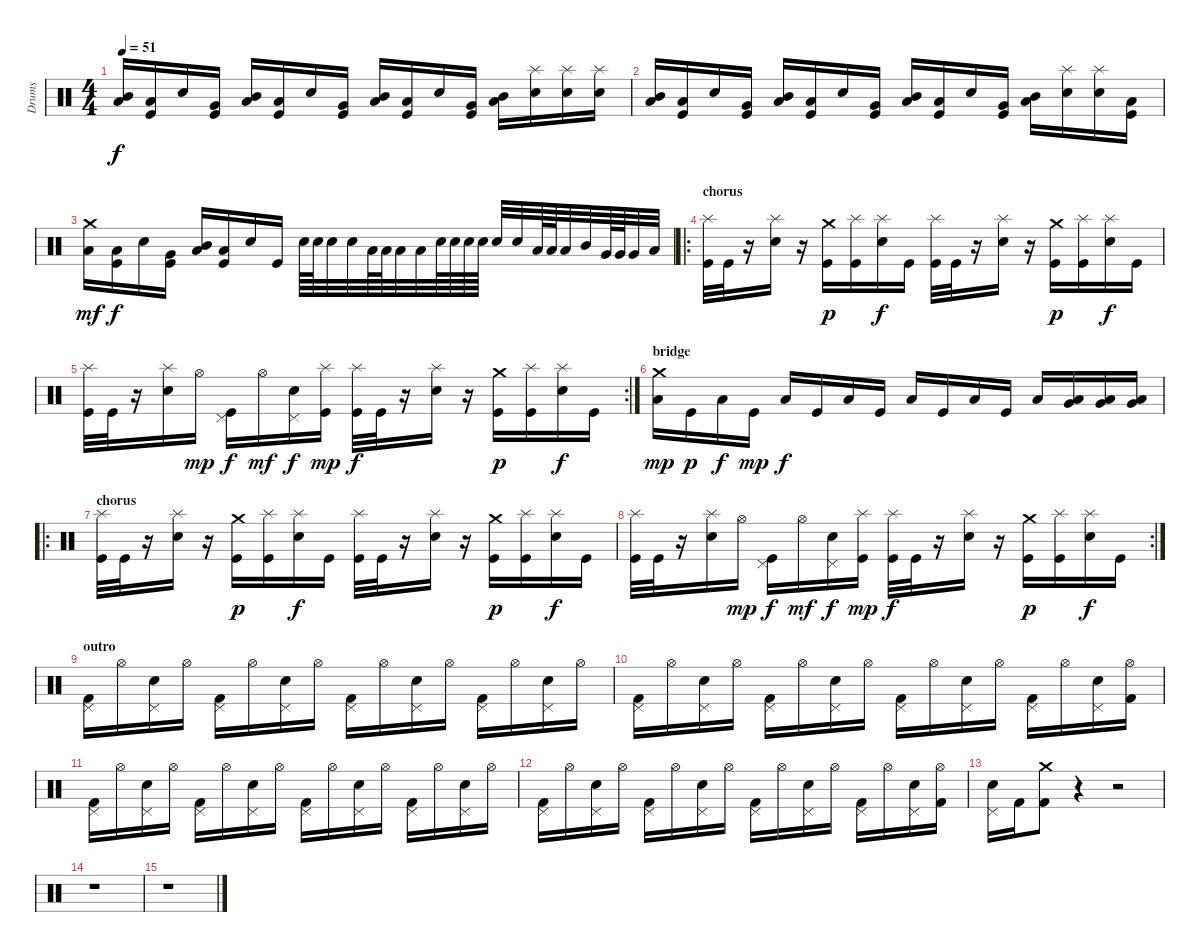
\track ("Drums" "Drums") {instrument percussion}
\staff {score}
\articulation defaults
\ts (4 4)
\tempo 51
\clef neutral
\ks c
("Mid Tom (hit)" "Low Floor Tom (hit)").16{dy f} ("Low Floor Tom (hit)" "Kick (hit)").16 "Snare (hit) 2".16 ("Very Low Tom (hit)" "Kick (hit)").16 ("Mid Tom (hit)" "Low Floor Tom (hit)").16 ("Low Floor Tom (hit)" "Kick (hit)").16 "Snare (hit) 2".16 ("Very Low Tom (hit)" "Kick (hit)").16 ("Mid Tom (hit)" "Low Floor Tom (hit)").16 ("Low Floor Tom (hit)" "Kick (hit)").16 "Snare (hit) 2".16 ("Very Low Tom (hit)" "Kick (hit)").16 ("Mid Tom (hit)" "Low Floor Tom (hit)").16 ("Splash (hit)" "Snare (hit) 2").16 ("Splash (hit)" "Snare (hit) 2").16 ("Splash (hit)" "Snare (hit) 2").16 |
("Mid Tom (hit)" "Low Floor Tom (hit)").16 ("Low Floor Tom (hit)" "Kick (hit)").16 "Snare (hit) 2".16 ("Very Low Tom (hit)" "Kick (hit)").16 ("Mid Tom (hit)" "Low Floor Tom (hit)").16 ("Low Floor Tom (hit)" "Kick (hit)").16 "Snare (hit) 2".16 ("Very Low Tom (hit)" "Kick (hit)").16 ("Mid Tom (hit)" "Low Floor Tom (hit)").16 ("Low Floor Tom (hit)" "Kick (hit)").16 "Snare (hit) 2".16 ("Very Low Tom (hit)" "Kick (hit)").16 ("Mid Tom (hit)" "Low Floor Tom (hit)").16 ("Splash (hit)" "Snare (hit) 2").16 ("Splash (hit)" "Snare (hit) 2").16 ("Low Tom (hit)" "Kick (hit)").16 |
("Crash medium (hit)" "Low Floor Tom (hit)").16{dy mf} ("Low Floor Tom (hit)" "Kick (hit)").16{dy f} "Snare (hit) 2".16 ("Very Low Tom (hit)" "Kick (hit)").16 ("Mid Tom (hit)" "Low Floor Tom (hit)").16 ("Low Floor Tom (hit)" "Kick (hit)").16 "Snare (hit) 2".16 "Kick (hit)".16 "Snare (hit) 2".64 "Snare (hit) 2".64 "Snare (hit) 2".32 "Snare (hit) 2".32 "Low Tom (hit)".64 "Low Tom (hit)".64 "Low Tom (hit)".32 "Low Tom (hit)".32 "Snare (hit) 2".64 "Snare (hit) 2".64 "Snare (hit) 2".64 "Snare (hit) 2".64 "Snare (hit) 2".32 "Snare (hit) 2".32 "Low Tom (hit)".64 "Low Tom (hit)".64 "Low Tom (hit)".32 "Mid Tom (hit)".32 "Very Low Tom (hit)".64 "Very Low Tom (hit)".64 "Very Low Tom (hit)".32 "Low Floor Tom (hit)".32 |
\ro
\section ("" "chorus")
("Splash (hit)" "Kick (hit)").32 "Kick (hit)".32 r.16 ("Splash (hit)" "Snare (hit) 2").16 r.16 ("Crash medium (hit)" "Kick (hit)").16{dy p} ("Splash (hit)" "Kick (hit)").16 ("Splash (hit)" "Snare (hit) 2").16{dy f} "Kick (hit)".16 ("Splash (hit)" "Kick (hit)").32 "Kick (hit)".32 r.16 ("Splash (hit)" "Snare (hit) 2").16 r.16 ("Crash medium (hit)" "Kick (hit)").16{dy p} ("Splash (hit)" "Kick (hit)").16 ("Splash (hit)" "Snare (hit) 2").16{dy f} "Kick (hit)".16 |
\rc 2
("Splash (hit)" "Kick (hit)").32 "Kick (hit)".32 r.16 ("Splash (hit)" "Snare (hit) 2").16 "Hi-Hat (open)".16{dy mp} ("Pedal Hi-Hat (hit)" "Kick (hit)").16{dy f} "Hi-Hat (open)".16{dy mf} ("Pedal Hi-Hat (hit)" "Snare (hit) 2").16{dy f} ("Splash (hit)" "Kick (hit)").16{dy mp} ("Splash (hit)" "Kick (hit)").32{dy f} "Kick (hit)".32 r.16 ("Splash (hit)" "Snare (hit) 2").16 r.16 ("Crash medium (hit)" "Kick (hit)").16{dy p} ("Splash (hit)" "Kick (hit)").16 ("Splash (hit)" "Snare (hit) 2").16{dy f} "Kick (hit)".16 |
\section ("" "bridge")
("Crash medium (hit)" "Low Tom (hit)").16{dy mp} "Kick (hit)".16{dy p} "Low Tom (hit)".16{dy f} "Kick (hit)".16{dy mp} "Low Tom (hit)".16{dy f} "Kick (hit)".16 "Low Tom (hit)".16 "Kick (hit)".16 "Low Tom (hit)".16 "Kick (hit)".16 "Low Tom (hit)".16 "Kick (hit)".16 "Low Tom (hit)".16 ("Very Low Tom (hit)" "Low Tom (hit)").16 ("Very Low Tom (hit)" "Low Tom (hit)").16 ("Low Floor Tom (hit)" "Very Low Tom (hit)").16 |
\ro
\section ("" "chorus")
("Splash (hit)" "Kick (hit)").32 "Kick (hit)".32 r.16 ("Splash (hit)" "Snare (hit) 2").16 r.16 ("Crash medium (hit)" "Kick (hit)").16{dy p} ("Splash (hit)" "Kick (hit)").16 ("Splash (hit)" "Snare (hit) 2").16{dy f} "Kick (hit)".16 ("Splash (hit)" "Kick (hit)").32 "Kick (hit)".32 r.16 ("Splash (hit)" "Snare (hit) 2").16 r.16 ("Crash medium (hit)" "Kick (hit)").16{dy p} ("Splash (hit)" "Kick (hit)").16 ("Splash (hit)" "Snare (hit) 2").16{dy f} "Kick (hit)".16 |
\rc 2
("Splash (hit)" "Kick (hit)").32 "Kick (hit)".32 r.16 ("Splash (hit)" "Snare (hit) 2").16 "Hi-Hat (open)".16{dy mp} ("Pedal Hi-Hat (hit)" "Kick (hit)").16{dy f} "Hi-Hat (open)".16{dy mf} ("Pedal Hi-Hat (hit)" "Snare (hit) 2").16{dy f} ("Splash (hit)" "Kick (hit)").16{dy mp} ("Splash (hit)" "Kick (hit)").32{dy f} "Kick (hit)".32 r.16 ("Splash (hit)" "Snare (hit) 2").16 r.16 ("Crash medium (hit)" "Kick (hit)").16{dy p} ("Splash (hit)" "Kick (hit)").16 ("Splash (hit)" "Snare (hit) 2").16{dy f} "Kick (hit)".16 |
\section ("" "outro")
("Pedal Hi-Hat (hit)" "Kick (hit) 2").16 "Hi-Hat (open)".16 ("Pedal Hi-Hat (hit)" "Snare (hit) 2").16 "Hi-Hat (open)".16 ("Pedal Hi-Hat (hit)" "Kick (hit) 2").16 "Hi-Hat (open)".16 ("Pedal Hi-Hat (hit)" "Snare (hit) 2").16 "Hi-Hat (open)".16 ("Pedal Hi-Hat (hit)" "Kick (hit) 2").16 "Hi-Hat (open)".16 ("Pedal Hi-Hat (hit)" "Snare (hit) 2").16 "Hi-Hat (open)".16 ("Pedal Hi-Hat (hit)" "Kick (hit) 2").16 "Hi-Hat (open)".16 ("Pedal Hi-Hat (hit)" "Snare (hit) 2").16 "Hi-Hat (open)".16 |
("Pedal Hi-Hat (hit)" "Kick (hit) 2").16 "Hi-Hat (open)".16 ("Pedal Hi-Hat (hit)" "Snare (hit) 2").16 "Hi-Hat (open)".16 ("Pedal Hi-Hat (hit)" "Kick (hit) 2").16 "Hi-Hat (open)".16 ("Pedal Hi-Hat (hit)" "Snare (hit) 2").16 "Hi-Hat (open)".16 ("Pedal Hi-Hat (hit)" "Kick (hit) 2").16 "Hi-Hat (open)".16 ("Pedal Hi-Hat (hit)" "Snare (hit) 2").16 "Hi-Hat (open)".16 ("Pedal Hi-Hat (hit)" "Kick (hit) 2").16 "Hi-Hat (open)".16 ("Pedal Hi-Hat (hit)" "Snare (hit) 2").16 ("Hi-Hat (open)" "Kick (hit) 2").16 |
("Pedal Hi-Hat (hit)" "Kick (hit) 2").16 "Hi-Hat (open)".16 ("Pedal Hi-Hat (hit)" "Snare (hit) 2").16 "Hi-Hat (open)".16 ("Pedal Hi-Hat (hit)" "Kick (hit) 2").16 "Hi-Hat (open)".16 ("Pedal Hi-Hat (hit)" "Snare (hit) 2").16 "Hi-Hat (open)".16 ("Pedal Hi-Hat (hit)" "Kick (hit) 2").16 "Hi-Hat (open)".16 ("Pedal Hi-Hat (hit)" "Snare (hit) 2").16 "Hi-Hat (open)".16 ("Pedal Hi-Hat (hit)" "Kick (hit) 2").16 "Hi-Hat (open)".16 ("Pedal Hi-Hat (hit)" "Snare (hit) 2").16 "Hi-Hat (open)".16 |
("Pedal Hi-Hat (hit)" "Kick (hit) 2").16 "Hi-Hat (open)".16 ("Pedal Hi-Hat (hit)" "Snare (hit) 2").16 "Hi-Hat (open)".16 ("Pedal Hi-Hat (hit)" "Kick (hit) 2").16 "Hi-Hat (open)".16 ("Pedal Hi-Hat (hit)" "Snare (hit) 2").16 "Hi-Hat (open)".16 ("Pedal Hi-Hat (hit)" "Kick (hit) 2").16 "Hi-Hat (open)".16 ("Pedal Hi-Hat (hit)" "Snare (hit) 2").16 "Hi-Hat (open)".16 ("Pedal Hi-Hat (hit)" "Kick (hit) 2").16 "Hi-Hat (open)".16 ("Pedal Hi-Hat (hit)" "Snare (hit) 2").16 ("Hi-Hat (open)" "Kick (hit) 2").16 |
("Pedal Hi-Hat (hit)" "Snare (hit) 2").16 "Kick (hit) 2".16 ("Crash medium (hit)" "Kick (hit) 2").8 r.4 r.2 |
r.1 |
r.1
